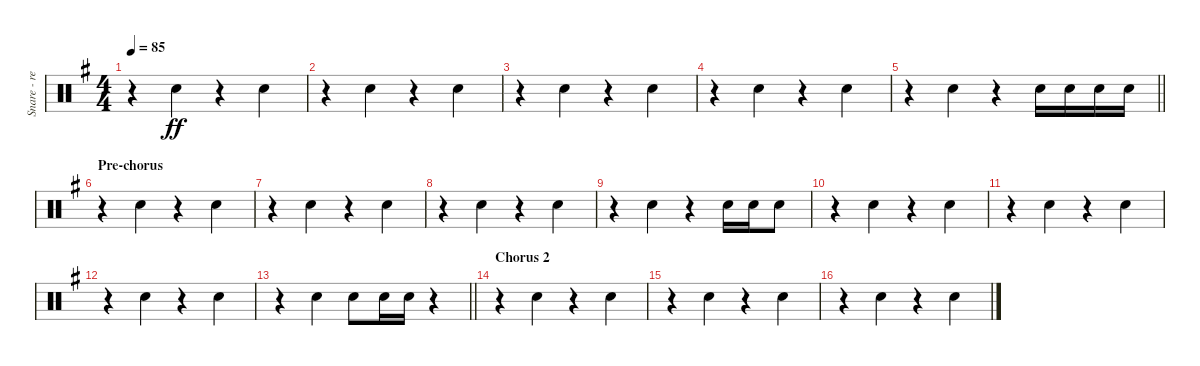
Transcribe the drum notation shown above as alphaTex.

\track ("Snare - reverb" "Snare - re") {instrument percussion}
\staff {score}
\articulation defaults
\ts (4 4)
\tempo 85
\clef neutral
\ks g
r.4{dy ff beam merge} "Snare (hit) 2".4 r.4{beam merge} "Snare (hit) 2".4 |
r.4{beam merge} "Snare (hit) 2".4 r.4{beam merge} "Snare (hit) 2".4 |
r.4{beam merge} "Snare (hit) 2".4 r.4{beam merge} "Snare (hit) 2".4 |
r.4{beam merge} "Snare (hit) 2".4 r.4{beam merge} "Snare (hit) 2".4 |
\barLineRight lightlight
r.4{beam merge} "Snare (hit) 2".4 r.4 "Snare (hit) 2".16 "Snare (hit) 2".16 "Snare (hit) 2".16 "Snare (hit) 2".16 |
\section ("" "Pre-chorus")
r.4{beam merge} "Snare (hit) 2".4 r.4{beam merge} "Snare (hit) 2".4 |
r.4{beam merge} "Snare (hit) 2".4 r.4{beam merge} "Snare (hit) 2".4 |
r.4{beam merge} "Snare (hit) 2".4 r.4{beam merge} "Snare (hit) 2".4 |
r.4{beam merge} "Snare (hit) 2".4 r.4 "Snare (hit) 2".16 "Snare (hit) 2".16 "Snare (hit) 2".8 |
r.4{beam merge} "Snare (hit) 2".4 r.4{beam merge} "Snare (hit) 2".4 |
r.4{beam merge} "Snare (hit) 2".4 r.4{beam merge} "Snare (hit) 2".4 |
r.4{beam merge} "Snare (hit) 2".4 r.4{beam merge} "Snare (hit) 2".4 |
\barLineRight lightlight
r.4{beam merge} "Snare (hit) 2".4 "Snare (hit) 2".8 "Snare (hit) 2".16 "Snare (hit) 2".16 r.4 |
\section ("" "Chorus 2")
r.4{beam merge} "Snare (hit) 2".4 r.4{beam merge} "Snare (hit) 2".4 |
r.4{beam merge} "Snare (hit) 2".4 r.4{beam merge} "Snare (hit) 2".4 |
r.4{beam merge} "Snare (hit) 2".4 r.4{beam merge} "Snare (hit) 2".4
